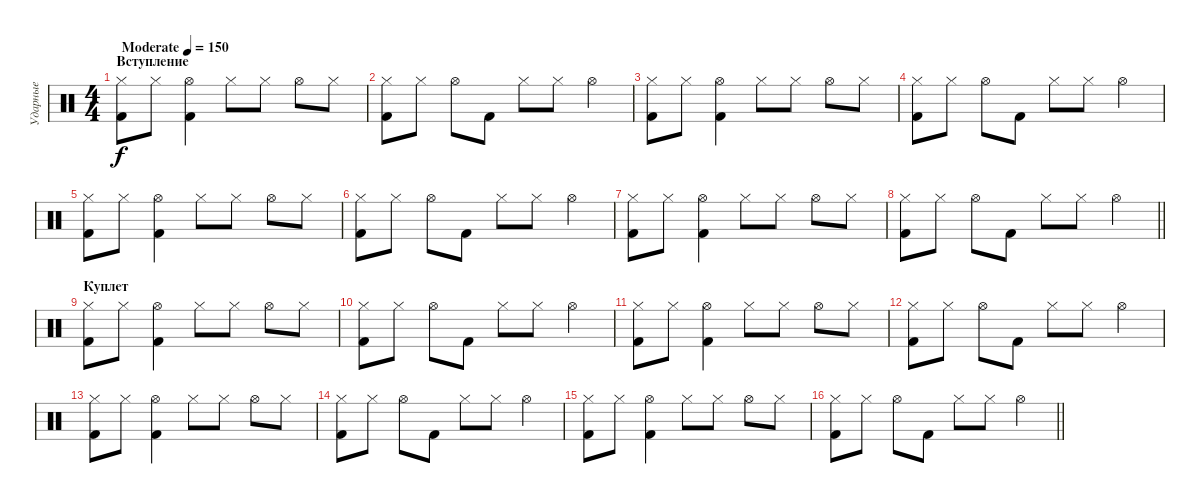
\track ("Ударные" "Ударные") {instrument percussion}
\staff {score}
\articulation defaults
\ts (4 4)
\section ("" "Вступление")
\tempo (150 "Moderate")
\clef neutral
\ks c
("Hi-Hat (closed)" "Kick (hit) 2").8{dy f} "Hi-Hat (closed)".8 ("Hi-Hat (open)" "Kick (hit) 2").4 "Hi-Hat (closed)".8 "Hi-Hat (closed)".8 "Hi-Hat (open)".8 "Hi-Hat (closed)".8 |
("Hi-Hat (closed)" "Kick (hit) 2").8 "Hi-Hat (closed)".8 "Hi-Hat (open)".8 "Kick (hit) 2".8 "Hi-Hat (closed)".8 "Hi-Hat (closed)".8 "Hi-Hat (open)".4 |
("Hi-Hat (closed)" "Kick (hit) 2").8 "Hi-Hat (closed)".8 ("Hi-Hat (open)" "Kick (hit) 2").4 "Hi-Hat (closed)".8 "Hi-Hat (closed)".8 "Hi-Hat (open)".8 "Hi-Hat (closed)".8 |
("Hi-Hat (closed)" "Kick (hit) 2").8 "Hi-Hat (closed)".8 "Hi-Hat (open)".8 "Kick (hit) 2".8 "Hi-Hat (closed)".8 "Hi-Hat (closed)".8 "Hi-Hat (open)".4 |
("Hi-Hat (closed)" "Kick (hit) 2").8 "Hi-Hat (closed)".8 ("Hi-Hat (open)" "Kick (hit) 2").4 "Hi-Hat (closed)".8 "Hi-Hat (closed)".8 "Hi-Hat (open)".8 "Hi-Hat (closed)".8 |
("Hi-Hat (closed)" "Kick (hit) 2").8 "Hi-Hat (closed)".8 "Hi-Hat (open)".8 "Kick (hit) 2".8 "Hi-Hat (closed)".8 "Hi-Hat (closed)".8 "Hi-Hat (open)".4 |
("Hi-Hat (closed)" "Kick (hit) 2").8 "Hi-Hat (closed)".8 ("Hi-Hat (open)" "Kick (hit) 2").4 "Hi-Hat (closed)".8 "Hi-Hat (closed)".8 "Hi-Hat (open)".8 "Hi-Hat (closed)".8 |
\barLineRight lightlight
("Hi-Hat (closed)" "Kick (hit) 2").8 "Hi-Hat (closed)".8 "Hi-Hat (open)".8 "Kick (hit) 2".8 "Hi-Hat (closed)".8 "Hi-Hat (closed)".8 "Hi-Hat (open)".4 |
\section ("" "Куплет")
("Hi-Hat (closed)" "Kick (hit) 2").8 "Hi-Hat (closed)".8 ("Hi-Hat (open)" "Kick (hit) 2").4 "Hi-Hat (closed)".8 "Hi-Hat (closed)".8 "Hi-Hat (open)".8 "Hi-Hat (closed)".8 |
("Hi-Hat (closed)" "Kick (hit) 2").8 "Hi-Hat (closed)".8 "Hi-Hat (open)".8 "Kick (hit) 2".8 "Hi-Hat (closed)".8 "Hi-Hat (closed)".8 "Hi-Hat (open)".4 |
("Hi-Hat (closed)" "Kick (hit) 2").8 "Hi-Hat (closed)".8 ("Hi-Hat (open)" "Kick (hit) 2").4 "Hi-Hat (closed)".8 "Hi-Hat (closed)".8 "Hi-Hat (open)".8 "Hi-Hat (closed)".8 |
("Hi-Hat (closed)" "Kick (hit) 2").8 "Hi-Hat (closed)".8 "Hi-Hat (open)".8 "Kick (hit) 2".8 "Hi-Hat (closed)".8 "Hi-Hat (closed)".8 "Hi-Hat (open)".4 |
("Hi-Hat (closed)" "Kick (hit) 2").8 "Hi-Hat (closed)".8 ("Hi-Hat (open)" "Kick (hit) 2").4 "Hi-Hat (closed)".8 "Hi-Hat (closed)".8 "Hi-Hat (open)".8 "Hi-Hat (closed)".8 |
("Hi-Hat (closed)" "Kick (hit) 2").8 "Hi-Hat (closed)".8 "Hi-Hat (open)".8 "Kick (hit) 2".8 "Hi-Hat (closed)".8 "Hi-Hat (closed)".8 "Hi-Hat (open)".4 |
("Hi-Hat (closed)" "Kick (hit) 2").8 "Hi-Hat (closed)".8 ("Hi-Hat (open)" "Kick (hit) 2").4 "Hi-Hat (closed)".8 "Hi-Hat (closed)".8 "Hi-Hat (open)".8 "Hi-Hat (closed)".8 |
\barLineRight lightlight
("Hi-Hat (closed)" "Kick (hit) 2").8 "Hi-Hat (closed)".8 "Hi-Hat (open)".8 "Kick (hit) 2".8 "Hi-Hat (closed)".8 "Hi-Hat (closed)".8 "Hi-Hat (open)".4
